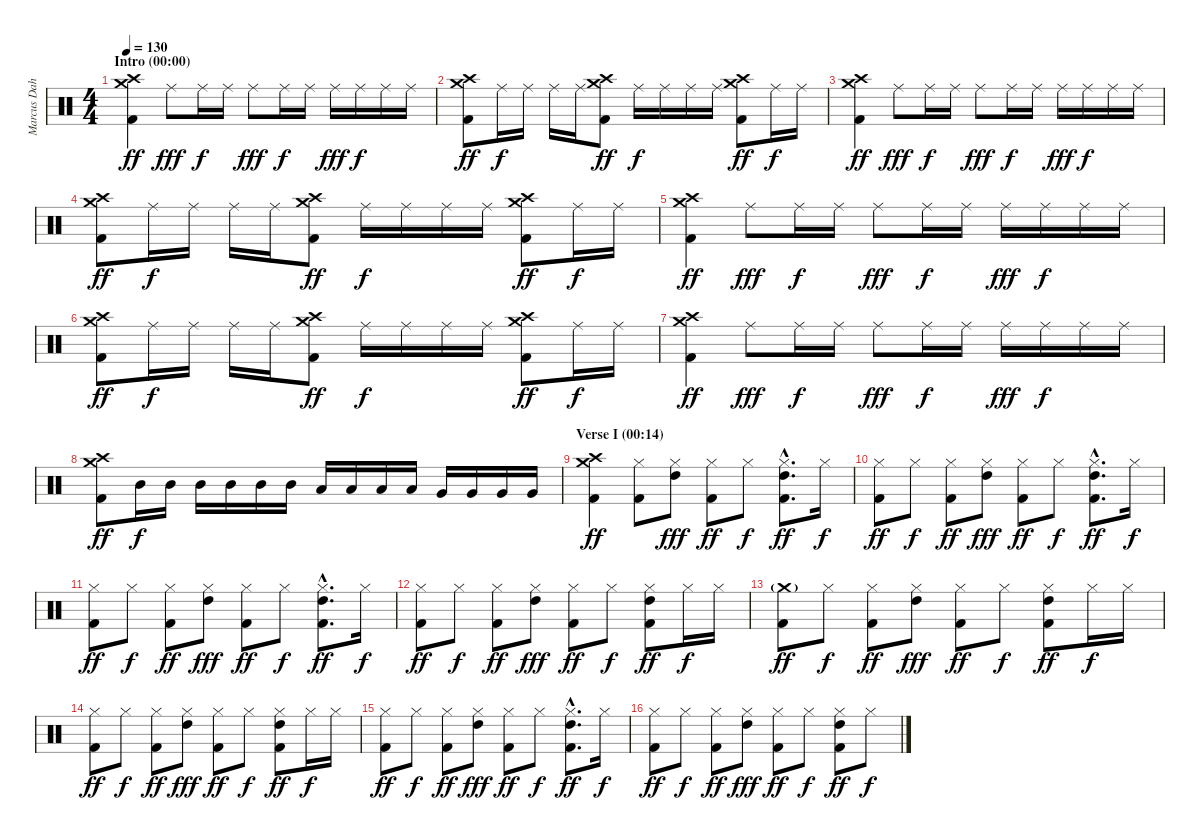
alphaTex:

\track ("Marcus Dahlström" "Marcus Dah") {instrument percussion}
\staff {score}
\articulation defaults
\ts (4 4)
\section ("" "Intro (00:00)")
\tempo 130
\clef neutral
\ks c
("Crash high (hit)" "Crash medium (hit)" "Kick (hit) 2").4{dy ff} "Ride (middle)".8{dy fff} "Ride (middle)".16{dy f} "Ride (middle)".16 "Ride (middle)".8{dy fff} "Ride (middle)".16{dy f} "Ride (middle)".16 "Ride (middle)".16{dy fff} "Ride (middle)".16{dy f} "Ride (middle)".16 "Ride (middle)".16 |
("Crash high (hit)" "Crash medium (hit)" "Kick (hit) 2").8{dy ff} "Ride (middle)".16{dy f} "Ride (middle)".16 "Ride (middle)".16 "Ride (middle)".16 ("Crash high (hit)" "Crash medium (hit)" "Kick (hit) 2").8{dy ff} "Ride (middle)".16{dy f} "Ride (middle)".16 "Ride (middle)".16 "Ride (middle)".16 ("Crash high (hit)" "Crash medium (hit)" "Kick (hit) 2").8{dy ff} "Ride (middle)".16{dy f} "Ride (middle)".16 |
("Crash high (hit)" "Crash medium (hit)" "Kick (hit) 2").4{dy ff} "Ride (middle)".8{dy fff} "Ride (middle)".16{dy f} "Ride (middle)".16 "Ride (middle)".8{dy fff} "Ride (middle)".16{dy f} "Ride (middle)".16 "Ride (middle)".16{dy fff} "Ride (middle)".16{dy f} "Ride (middle)".16 "Ride (middle)".16 |
("Crash high (hit)" "Crash medium (hit)" "Kick (hit) 2").8{dy ff} "Ride (middle)".16{dy f} "Ride (middle)".16 "Ride (middle)".16 "Ride (middle)".16 ("Crash high (hit)" "Crash medium (hit)" "Kick (hit) 2").8{dy ff} "Ride (middle)".16{dy f} "Ride (middle)".16 "Ride (middle)".16 "Ride (middle)".16 ("Crash high (hit)" "Crash medium (hit)" "Kick (hit) 2").8{dy ff} "Ride (middle)".16{dy f} "Ride (middle)".16 |
("Crash high (hit)" "Crash medium (hit)" "Kick (hit) 2").4{dy ff} "Ride (middle)".8{dy fff} "Ride (middle)".16{dy f} "Ride (middle)".16 "Ride (middle)".8{dy fff} "Ride (middle)".16{dy f} "Ride (middle)".16 "Ride (middle)".16{dy fff} "Ride (middle)".16{dy f} "Ride (middle)".16 "Ride (middle)".16 |
("Crash high (hit)" "Crash medium (hit)" "Kick (hit) 2").8{dy ff} "Ride (middle)".16{dy f} "Ride (middle)".16 "Ride (middle)".16 "Ride (middle)".16 ("Crash high (hit)" "Crash medium (hit)" "Kick (hit) 2").8{dy ff} "Ride (middle)".16{dy f} "Ride (middle)".16 "Ride (middle)".16 "Ride (middle)".16 ("Crash high (hit)" "Crash medium (hit)" "Kick (hit) 2").8{dy ff} "Ride (middle)".16{dy f} "Ride (middle)".16 |
("Crash high (hit)" "Crash medium (hit)" "Kick (hit) 2").4{dy ff} "Ride (middle)".8{dy fff} "Ride (middle)".16{dy f} "Ride (middle)".16 "Ride (middle)".8{dy fff} "Ride (middle)".16{dy f} "Ride (middle)".16 "Ride (middle)".16{dy fff} "Ride (middle)".16{dy f} "Ride (middle)".16 "Ride (middle)".16 |
("Crash high (hit)" "Crash medium (hit)" "Kick (hit) 2").8{dy ff} "Mid Tom (hit)".16{dy f} "Mid Tom (hit)".16 "Mid Tom (hit)".16 "Mid Tom (hit)".16 "Mid Tom (hit)".16 "Mid Tom (hit)".16 "Low Tom (hit)".16 "Low Tom (hit)".16 "Low Tom (hit)".16 "Low Tom (hit)".16 "Very Low Tom (hit)".16 "Very Low Tom (hit)".16 "Very Low Tom (hit)".16 "Very Low Tom (hit)".16 |
\section ("" "Verse I (00:14)")
("Crash high (hit)" "Crash medium (hit)" "Kick (hit) 2").4{dy ff} ("Hi-Hat (closed)" "Kick (hit) 2").8 ("High Tom (hit)" "Hi-Hat (closed)").8{dy fff} ("Hi-Hat (closed)" "Kick (hit) 2").8{dy ff} "Hi-Hat (closed)".8{dy f} ("High Tom (hit)"{hac} "Hi-Hat (closed)"{hac} "Kick (hit) 2"{hac}).8{d dy ff} "Hi-Hat (closed)".16{dy f} |
("Hi-Hat (closed)" "Kick (hit) 2").8{dy ff} "Hi-Hat (closed)".8{dy f} ("Hi-Hat (closed)" "Kick (hit) 2").8{dy ff} ("High Tom (hit)" "Hi-Hat (closed)").8{dy fff} ("Hi-Hat (closed)" "Kick (hit) 2").8{dy ff} "Hi-Hat (closed)".8{dy f} ("High Tom (hit)"{hac} "Hi-Hat (closed)"{hac} "Kick (hit) 2"{hac}).8{d dy ff} "Hi-Hat (closed)".16{dy f} |
("Hi-Hat (closed)" "Kick (hit) 2").8{dy ff} "Hi-Hat (closed)".8{dy f} ("Hi-Hat (closed)" "Kick (hit) 2").8{dy ff} ("High Tom (hit)" "Hi-Hat (closed)").8{dy fff} ("Hi-Hat (closed)" "Kick (hit) 2").8{dy ff} "Hi-Hat (closed)".8{dy f} ("High Tom (hit)"{hac} "Hi-Hat (closed)"{hac} "Kick (hit) 2"{hac}).8{d dy ff} "Hi-Hat (closed)".16{dy f} |
("Hi-Hat (closed)" "Kick (hit) 2").8{dy ff} "Hi-Hat (closed)".8{dy f} ("Hi-Hat (closed)" "Kick (hit) 2").8{dy ff} ("High Tom (hit)" "Hi-Hat (closed)").8{dy fff} ("Hi-Hat (closed)" "Kick (hit) 2").8{dy ff} "Hi-Hat (closed)".8{dy f} ("High Tom (hit)" "Hi-Hat (closed)" "Kick (hit) 2").8{dy ff} "Hi-Hat (closed)".16{dy f} "Hi-Hat (closed)".16 |
("Crash medium (hit)"{g} "Kick (hit) 2").8{dy ff} "Hi-Hat (closed)".8{dy f} ("Hi-Hat (closed)" "Kick (hit) 2").8{dy ff} ("High Tom (hit)" "Hi-Hat (closed)").8{dy fff} ("Hi-Hat (closed)" "Kick (hit) 2").8{dy ff} "Hi-Hat (closed)".8{dy f} ("High Tom (hit)" "Hi-Hat (closed)" "Kick (hit) 2").8{dy ff} "Hi-Hat (closed)".16{dy f} "Hi-Hat (closed)".16 |
("Hi-Hat (closed)" "Kick (hit) 2").8{dy ff} "Hi-Hat (closed)".8{dy f} ("Hi-Hat (closed)" "Kick (hit) 2").8{dy ff} ("High Tom (hit)" "Hi-Hat (closed)").8{dy fff} ("Hi-Hat (closed)" "Kick (hit) 2").8{dy ff} "Hi-Hat (closed)".8{dy f} ("High Tom (hit)" "Hi-Hat (closed)" "Kick (hit) 2").8{dy ff} "Hi-Hat (closed)".16{dy f} "Hi-Hat (closed)".16 |
("Hi-Hat (closed)" "Kick (hit) 2").8{dy ff} "Hi-Hat (closed)".8{dy f} ("Hi-Hat (closed)" "Kick (hit) 2").8{dy ff} ("High Tom (hit)" "Hi-Hat (closed)").8{dy fff} ("Hi-Hat (closed)" "Kick (hit) 2").8{dy ff} "Hi-Hat (closed)".8{dy f} ("High Tom (hit)"{hac} "Hi-Hat (closed)"{hac} "Kick (hit) 2"{hac}).8{d dy ff} "Hi-Hat (closed)".16{dy f} |
("Hi-Hat (closed)" "Kick (hit) 2").8{dy ff} "Hi-Hat (closed)".8{dy f} ("Hi-Hat (closed)" "Kick (hit) 2").8{dy ff} ("High Tom (hit)" "Hi-Hat (closed)").8{dy fff} ("Hi-Hat (closed)" "Kick (hit) 2").8{dy ff} "Hi-Hat (closed)".8{dy f} ("High Tom (hit)" "Hi-Hat (closed)" "Kick (hit) 2").8{dy ff} "Hi-Hat (closed)".8{dy f}
